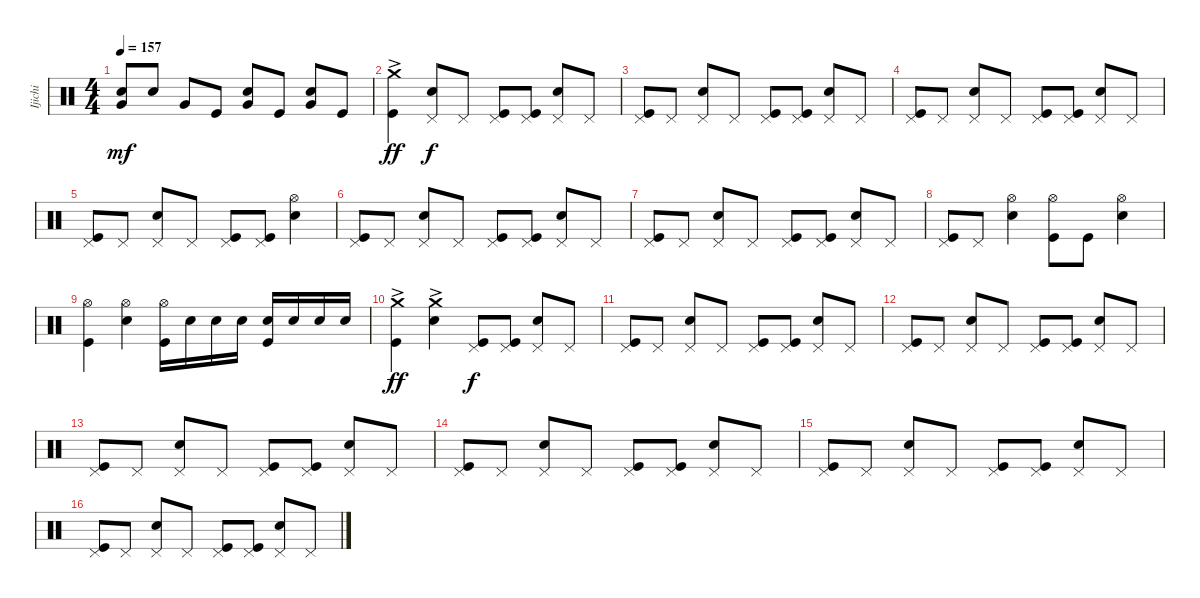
\track ("Ijichi" "Ijichi") {instrument percussion}
\staff {score}
\articulation defaults
\ts (4 4)
\tempo 157
\clef neutral
\ks c
("Snare (hit) 2" "Very Low Tom (hit)").8{dy mf} "Snare (hit) 2".8 "Very Low Tom (hit)".8 "Kick (hit)".8 ("Snare (hit) 2" "Very Low Tom (hit)").8 "Kick (hit)".8 ("Snare (hit) 2" "Very Low Tom (hit)").8 "Kick (hit)".8 |
("Crash medium (hit)"{ac} "Kick (hit)").4{dy ff} ("Pedal Hi-Hat (hit)" "Snare (hit) 2").8{dy f} "Pedal Hi-Hat (hit)".8 ("Pedal Hi-Hat (hit)" "Kick (hit)").8 ("Pedal Hi-Hat (hit)" "Kick (hit)").8 ("Pedal Hi-Hat (hit)" "Snare (hit) 2").8 "Pedal Hi-Hat (hit)".8 |
("Pedal Hi-Hat (hit)" "Kick (hit)").8 "Pedal Hi-Hat (hit)".8 ("Pedal Hi-Hat (hit)" "Snare (hit) 2").8 "Pedal Hi-Hat (hit)".8 ("Pedal Hi-Hat (hit)" "Kick (hit)").8 ("Pedal Hi-Hat (hit)" "Kick (hit)").8 ("Pedal Hi-Hat (hit)" "Snare (hit) 2").8 "Pedal Hi-Hat (hit)".8 |
("Pedal Hi-Hat (hit)" "Kick (hit)").8 "Pedal Hi-Hat (hit)".8 ("Pedal Hi-Hat (hit)" "Snare (hit) 2").8 "Pedal Hi-Hat (hit)".8 ("Pedal Hi-Hat (hit)" "Kick (hit)").8 ("Pedal Hi-Hat (hit)" "Kick (hit)").8 ("Pedal Hi-Hat (hit)" "Snare (hit) 2").8 "Pedal Hi-Hat (hit)".8 |
("Pedal Hi-Hat (hit)" "Kick (hit)").8 "Pedal Hi-Hat (hit)".8 ("Pedal Hi-Hat (hit)" "Snare (hit) 2").8 "Pedal Hi-Hat (hit)".8 ("Pedal Hi-Hat (hit)" "Kick (hit)").8 ("Pedal Hi-Hat (hit)" "Kick (hit)").8 ("Hi-Hat (open)" "Snare (hit) 2").4 |
("Pedal Hi-Hat (hit)" "Kick (hit)").8 "Pedal Hi-Hat (hit)".8 ("Pedal Hi-Hat (hit)" "Snare (hit) 2").8 "Pedal Hi-Hat (hit)".8 ("Pedal Hi-Hat (hit)" "Kick (hit)").8 ("Pedal Hi-Hat (hit)" "Kick (hit)").8 ("Pedal Hi-Hat (hit)" "Snare (hit) 2").8 "Pedal Hi-Hat (hit)".8 |
("Pedal Hi-Hat (hit)" "Kick (hit)").8 "Pedal Hi-Hat (hit)".8 ("Pedal Hi-Hat (hit)" "Snare (hit) 2").8 "Pedal Hi-Hat (hit)".8 ("Pedal Hi-Hat (hit)" "Kick (hit)").8 ("Pedal Hi-Hat (hit)" "Kick (hit)").8 ("Pedal Hi-Hat (hit)" "Snare (hit) 2").8 "Pedal Hi-Hat (hit)".8 |
("Pedal Hi-Hat (hit)" "Kick (hit)").8 "Pedal Hi-Hat (hit)".8 ("Hi-Hat (open)" "Snare (hit) 2").4 ("Hi-Hat (open)" "Kick (hit)").8 "Kick (hit)".8 ("Hi-Hat (open)" "Snare (hit) 2").4 |
("Hi-Hat (open)" "Kick (hit)").4 ("Hi-Hat (open)" "Snare (hit) 2").4 ("Hi-Hat (open)" "Kick (hit)").16 "Snare (hit) 2".16 "Snare (hit) 2".16 "Snare (hit) 2".16 ("Snare (hit) 2" "Kick (hit)").16 "Snare (hit) 2".16 "Snare (hit) 2".16 "Snare (hit) 2".16 |
("Crash medium (hit)"{ac} "Kick (hit)").4{dy ff} ("Crash medium (hit)"{ac} "Snare (hit) 2").4 ("Pedal Hi-Hat (hit)" "Kick (hit)").8{dy f} ("Pedal Hi-Hat (hit)" "Kick (hit)").8 ("Pedal Hi-Hat (hit)" "Snare (hit) 2").8 "Pedal Hi-Hat (hit)".8 |
("Pedal Hi-Hat (hit)" "Kick (hit)").8 "Pedal Hi-Hat (hit)".8 ("Pedal Hi-Hat (hit)" "Snare (hit) 2").8 "Pedal Hi-Hat (hit)".8 ("Pedal Hi-Hat (hit)" "Kick (hit)").8 ("Pedal Hi-Hat (hit)" "Kick (hit)").8 ("Pedal Hi-Hat (hit)" "Snare (hit) 2").8 "Pedal Hi-Hat (hit)".8 |
("Pedal Hi-Hat (hit)" "Kick (hit)").8 "Pedal Hi-Hat (hit)".8 ("Pedal Hi-Hat (hit)" "Snare (hit) 2").8 "Pedal Hi-Hat (hit)".8 ("Pedal Hi-Hat (hit)" "Kick (hit)").8 ("Pedal Hi-Hat (hit)" "Kick (hit)").8 ("Pedal Hi-Hat (hit)" "Snare (hit) 2").8 "Pedal Hi-Hat (hit)".8 |
("Pedal Hi-Hat (hit)" "Kick (hit)").8 "Pedal Hi-Hat (hit)".8 ("Pedal Hi-Hat (hit)" "Snare (hit) 2").8 "Pedal Hi-Hat (hit)".8 ("Pedal Hi-Hat (hit)" "Kick (hit)").8 ("Pedal Hi-Hat (hit)" "Kick (hit)").8 ("Pedal Hi-Hat (hit)" "Snare (hit) 2").8 "Pedal Hi-Hat (hit)".8 |
("Pedal Hi-Hat (hit)" "Kick (hit)").8 "Pedal Hi-Hat (hit)".8 ("Pedal Hi-Hat (hit)" "Snare (hit) 2").8 "Pedal Hi-Hat (hit)".8 ("Pedal Hi-Hat (hit)" "Kick (hit)").8 ("Pedal Hi-Hat (hit)" "Kick (hit)").8 ("Pedal Hi-Hat (hit)" "Snare (hit) 2").8 "Pedal Hi-Hat (hit)".8 |
("Pedal Hi-Hat (hit)" "Kick (hit)").8 "Pedal Hi-Hat (hit)".8 ("Pedal Hi-Hat (hit)" "Snare (hit) 2").8 "Pedal Hi-Hat (hit)".8 ("Pedal Hi-Hat (hit)" "Kick (hit)").8 ("Pedal Hi-Hat (hit)" "Kick (hit)").8 ("Pedal Hi-Hat (hit)" "Snare (hit) 2").8 "Pedal Hi-Hat (hit)".8 |
("Pedal Hi-Hat (hit)" "Kick (hit)").8 "Pedal Hi-Hat (hit)".8 ("Pedal Hi-Hat (hit)" "Snare (hit) 2").8 "Pedal Hi-Hat (hit)".8 ("Pedal Hi-Hat (hit)" "Kick (hit)").8 ("Pedal Hi-Hat (hit)" "Kick (hit)").8 ("Pedal Hi-Hat (hit)" "Snare (hit) 2").8 "Pedal Hi-Hat (hit)".8
